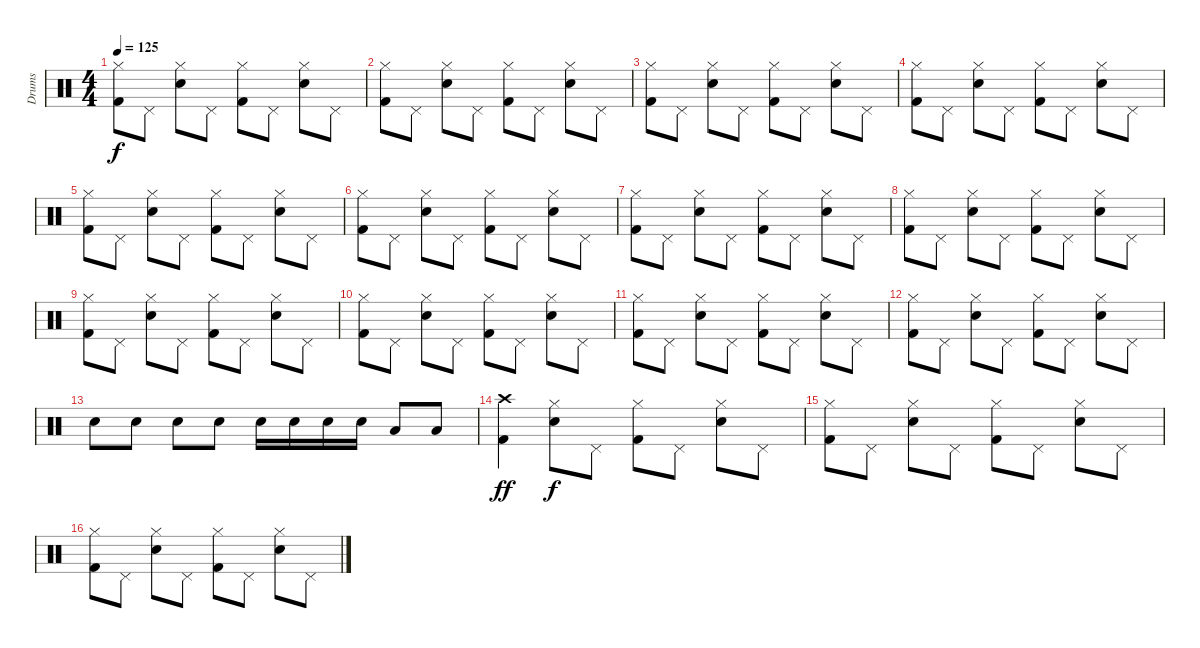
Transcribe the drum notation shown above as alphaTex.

\track ("Drums" "Drums") {instrument percussion}
\staff {score}
\articulation defaults
\ts (4 4)
\tempo 125
\clef neutral
\ks c
("Hi-Hat (closed)" "Kick (hit) 2").8{dy f} "Pedal Hi-Hat (hit)".8 ("Hi-Hat (closed)" "Electric Snare (hit)").8 "Pedal Hi-Hat (hit)".8 ("Hi-Hat (closed)" "Kick (hit) 2").8 "Pedal Hi-Hat (hit)".8 ("Hi-Hat (closed)" "Electric Snare (hit)").8 "Pedal Hi-Hat (hit)".8 |
("Hi-Hat (closed)" "Kick (hit) 2").8 "Pedal Hi-Hat (hit)".8 ("Hi-Hat (closed)" "Electric Snare (hit)").8 "Pedal Hi-Hat (hit)".8 ("Hi-Hat (closed)" "Kick (hit) 2").8 "Pedal Hi-Hat (hit)".8 ("Hi-Hat (closed)" "Electric Snare (hit)").8 "Pedal Hi-Hat (hit)".8 |
("Hi-Hat (closed)" "Kick (hit) 2").8 "Pedal Hi-Hat (hit)".8 ("Hi-Hat (closed)" "Electric Snare (hit)").8 "Pedal Hi-Hat (hit)".8 ("Hi-Hat (closed)" "Kick (hit) 2").8 "Pedal Hi-Hat (hit)".8 ("Hi-Hat (closed)" "Electric Snare (hit)").8 "Pedal Hi-Hat (hit)".8 |
("Hi-Hat (closed)" "Kick (hit) 2").8 "Pedal Hi-Hat (hit)".8 ("Hi-Hat (closed)" "Electric Snare (hit)").8 "Pedal Hi-Hat (hit)".8 ("Hi-Hat (closed)" "Kick (hit) 2").8 "Pedal Hi-Hat (hit)".8 ("Hi-Hat (closed)" "Electric Snare (hit)").8 "Pedal Hi-Hat (hit)".8 |
("Hi-Hat (closed)" "Kick (hit) 2").8 "Pedal Hi-Hat (hit)".8 ("Hi-Hat (closed)" "Electric Snare (hit)").8 "Pedal Hi-Hat (hit)".8 ("Hi-Hat (closed)" "Kick (hit) 2").8 "Pedal Hi-Hat (hit)".8 ("Hi-Hat (closed)" "Electric Snare (hit)").8 "Pedal Hi-Hat (hit)".8 |
("Hi-Hat (closed)" "Kick (hit) 2").8 "Pedal Hi-Hat (hit)".8 ("Hi-Hat (closed)" "Electric Snare (hit)").8 "Pedal Hi-Hat (hit)".8 ("Hi-Hat (closed)" "Kick (hit) 2").8 "Pedal Hi-Hat (hit)".8 ("Hi-Hat (closed)" "Electric Snare (hit)").8 "Pedal Hi-Hat (hit)".8 |
("Hi-Hat (closed)" "Kick (hit) 2").8 "Pedal Hi-Hat (hit)".8 ("Hi-Hat (closed)" "Electric Snare (hit)").8 "Pedal Hi-Hat (hit)".8 ("Hi-Hat (closed)" "Kick (hit) 2").8 "Pedal Hi-Hat (hit)".8 ("Hi-Hat (closed)" "Electric Snare (hit)").8 "Pedal Hi-Hat (hit)".8 |
("Hi-Hat (closed)" "Kick (hit) 2").8 "Pedal Hi-Hat (hit)".8 ("Hi-Hat (closed)" "Electric Snare (hit)").8 "Pedal Hi-Hat (hit)".8 ("Hi-Hat (closed)" "Kick (hit) 2").8 "Pedal Hi-Hat (hit)".8 ("Hi-Hat (closed)" "Electric Snare (hit)").8 "Pedal Hi-Hat (hit)".8 |
("Hi-Hat (closed)" "Kick (hit) 2").8 "Pedal Hi-Hat (hit)".8 ("Hi-Hat (closed)" "Electric Snare (hit)").8 "Pedal Hi-Hat (hit)".8 ("Hi-Hat (closed)" "Kick (hit) 2").8 "Pedal Hi-Hat (hit)".8 ("Hi-Hat (closed)" "Electric Snare (hit)").8 "Pedal Hi-Hat (hit)".8 |
("Hi-Hat (closed)" "Kick (hit) 2").8 "Pedal Hi-Hat (hit)".8 ("Hi-Hat (closed)" "Electric Snare (hit)").8 "Pedal Hi-Hat (hit)".8 ("Hi-Hat (closed)" "Kick (hit) 2").8 "Pedal Hi-Hat (hit)".8 ("Hi-Hat (closed)" "Electric Snare (hit)").8 "Pedal Hi-Hat (hit)".8 |
("Hi-Hat (closed)" "Kick (hit) 2").8 "Pedal Hi-Hat (hit)".8 ("Hi-Hat (closed)" "Electric Snare (hit)").8 "Pedal Hi-Hat (hit)".8 ("Hi-Hat (closed)" "Kick (hit) 2").8 "Pedal Hi-Hat (hit)".8 ("Hi-Hat (closed)" "Electric Snare (hit)").8 "Pedal Hi-Hat (hit)".8 |
("Hi-Hat (closed)" "Kick (hit) 2").8 "Pedal Hi-Hat (hit)".8 ("Hi-Hat (closed)" "Electric Snare (hit)").8 "Pedal Hi-Hat (hit)".8 ("Hi-Hat (closed)" "Kick (hit) 2").8 "Pedal Hi-Hat (hit)".8 ("Hi-Hat (closed)" "Electric Snare (hit)").8 "Pedal Hi-Hat (hit)".8 |
"Snare (hit) 2".8 "Snare (hit) 2".8 "Snare (hit) 2".8 "Snare (hit) 2".8 "Snare (hit) 2".16 "Snare (hit) 2".16 "Snare (hit) 2".16 "Snare (hit) 2".16 "Low Tom (hit)".8 "Low Tom (hit)".8 |
("Crash high (hit)" "Kick (hit) 2").4{dy ff} ("Hi-Hat (closed)" "Electric Snare (hit)").8{dy f} "Pedal Hi-Hat (hit)".8 ("Hi-Hat (closed)" "Kick (hit) 2").8 "Pedal Hi-Hat (hit)".8 ("Hi-Hat (closed)" "Electric Snare (hit)").8 "Pedal Hi-Hat (hit)".8 |
("Hi-Hat (closed)" "Kick (hit) 2").8 "Pedal Hi-Hat (hit)".8 ("Hi-Hat (closed)" "Electric Snare (hit)").8 "Pedal Hi-Hat (hit)".8 ("Hi-Hat (closed)" "Kick (hit) 2").8 "Pedal Hi-Hat (hit)".8 ("Hi-Hat (closed)" "Electric Snare (hit)").8 "Pedal Hi-Hat (hit)".8 |
("Hi-Hat (closed)" "Kick (hit) 2").8 "Pedal Hi-Hat (hit)".8 ("Hi-Hat (closed)" "Electric Snare (hit)").8 "Pedal Hi-Hat (hit)".8 ("Hi-Hat (closed)" "Kick (hit) 2").8 "Pedal Hi-Hat (hit)".8 ("Hi-Hat (closed)" "Electric Snare (hit)").8 "Pedal Hi-Hat (hit)".8
